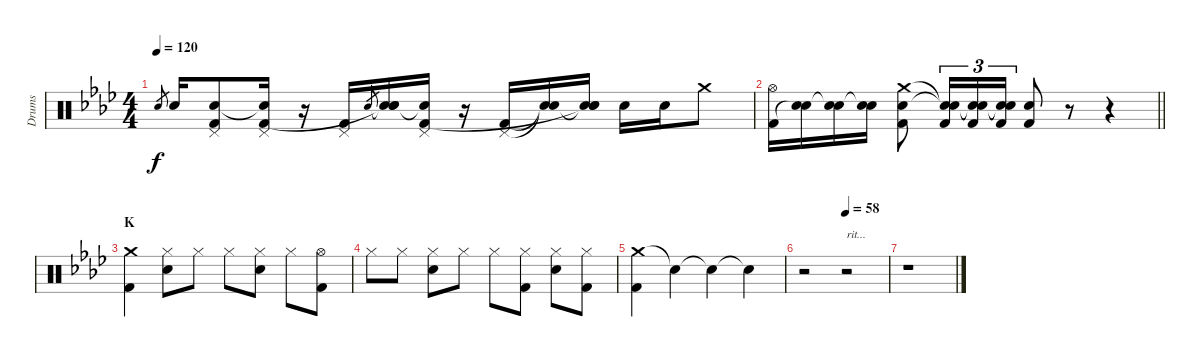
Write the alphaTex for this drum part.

\track ("Drums" "Drums") {instrument percussion}
\staff {score}
\articulation defaults
\ts (4 4)
\tempo 120
\clef neutral
\ks fminor "Electric Snare (hit)".8{gr dy f} "Electric Snare (hit)".16
("Pedal Hi-Hat (hit)" "Snare (hit)"{t} "Kick (hit) 2").8 ("Pedal Hi-Hat (hit)" "Snare (hit)"{t} "Kick (hit) 2").16 r.16 ("Pedal Hi-Hat (hit)" "Kick (hit) 2").16 "Electric Snare (hit)".8{gr} ("Snare (hit)"{t} "Electric Snare (hit)" "Snare (hit)"{t}).16 ("Pedal Hi-Hat (hit)" "Snare (hit)"{t} "Kick (hit) 2").16 r.16 ("Pedal Hi-Hat (hit)" "Kick (hit) 2").16 ("Snare (hit)"{t} "Snare (hit)"{t}).16 ("Snare (hit)"{t} "Electric Snare (hit)" "Snare (hit)"{t}).16 "Electric Snare (hit)".16 "Electric Snare (hit)".16 "Crash medium (hit)".8 |
\barLineRight lightlight
("Hi-Hat (open)" "Kick (hit) 2").16 ("Electric Snare (hit)" "Snare (hit)"{t}).16 ("Electric Snare (hit)" "Snare (hit)"{t}).16 ("Electric Snare (hit)" "Snare (hit)"{t}).16 ("Crash medium (hit)" "Electric Snare (hit)" "Kick (hit) 2").8 ("Snare (hit)"{t} "Snare (hit)"{t} "Kick (hit) 2").16{tu (3 2)} ("Snare (hit)"{t} "Snare (hit)"{t} "Kick (hit) 2").16{tu (3 2)} ("Snare (hit)"{t} "Snare (hit)"{t} "Kick (hit) 2").16{tu (3 2)} ("Electric Snare (hit)" "Kick (hit) 2").8 r.8 r.4 |
\section ("" "K")
("Crash medium (hit)" "Kick (hit) 2").4 ("Hi-Hat (closed)" "Electric Snare (hit)").8 "Hi-Hat (closed)".8 "Hi-Hat (closed)".8 ("Hi-Hat (closed)" "Electric Snare (hit)").8 "Hi-Hat (closed)".8 ("Hi-Hat (open)" "Kick (hit) 2").8 |
"Hi-Hat (closed)".8 "Hi-Hat (closed)".8 ("Hi-Hat (closed)" "Electric Snare (hit)").8 "Hi-Hat (closed)".8 "Hi-Hat (closed)".8 ("Hi-Hat (closed)" "Kick (hit) 2").8 ("Hi-Hat (closed)" "Electric Snare (hit)").8 ("Hi-Hat (closed)" "Kick (hit) 2").8 |
("Crash medium (hit)" "Kick (hit) 2").4 "Snare (hit)"{t}.4 "Snare (hit)"{t}.4 "Snare (hit)"{t}.4 |
\tempo (58 0.5)
r.2 r.2{txt "rit..."} |
r.1
